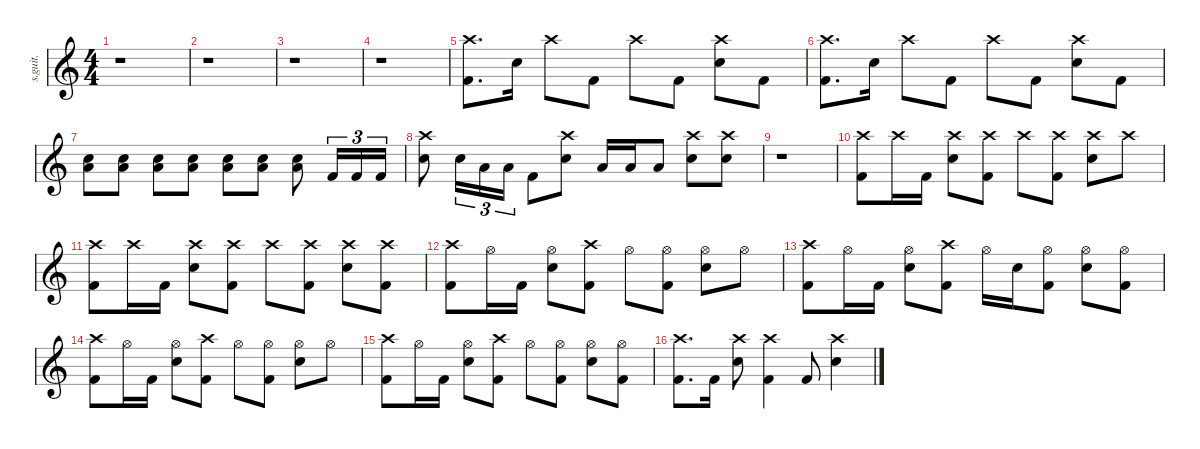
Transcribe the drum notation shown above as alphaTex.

\defaultSystemsLayout 4
\hideDynamics
\bracketExtendMode nobrackets
\track ("" "s.guit.") {instrument percussion}
\staff {score}
\articulation defaults
\ts (4 4)
\tempo (95 hide)
\clef g2
\ks c
r.1{dy f} |
r.1 |
r.1 |
r.1 |
("Crash high (hit)" "Kick (hit) 2").8{d} "Snare (hit) 2".16 "Crash high (hit)".8 "Kick (hit) 2".8 "Crash high (hit)".8 "Kick (hit) 2".8 ("Crash high (hit)" "Snare (hit) 2").8 "Kick (hit) 2".8 |
("Crash high (hit)" "Kick (hit) 2").8{d} "Snare (hit) 2".16 "Crash high (hit)".8 "Kick (hit) 2".8 "Crash high (hit)".8 "Kick (hit) 2".8 ("Crash high (hit)" "Snare (hit) 2").8 "Kick (hit) 2".8 |
("Snare (hit) 2" "Low Floor Tom (hit)").8 ("Snare (hit) 2" "Low Floor Tom (hit)").8 ("Snare (hit) 2" "Low Floor Tom (hit)").8 ("Snare (hit) 2" "Low Floor Tom (hit)").8 ("Snare (hit) 2" "Low Floor Tom (hit)").8 ("Snare (hit) 2" "Low Floor Tom (hit)").8 ("Snare (hit) 2" "Low Floor Tom (hit)").8 "Kick (hit) 2".16{tu (3 2)} "Kick (hit) 2".16{tu (3 2)} "Kick (hit) 2".16{tu (3 2)} |
("Crash high (hit)" "Snare (hit) 2").8 "Snare (hit) 2".16{tu (3 2)} "Low Tom (hit)".16{tu (3 2)} "Low Floor Tom (hit)".16{tu (3 2)} "Kick (hit) 2".8 ("Crash high (hit)" "Snare (hit) 2").8 "Low Tom (hit)".16 "Low Tom (hit)".16 "Low Floor Tom (hit)".8 ("Crash high (hit)" "Snare (hit) 2").8 ("Crash high (hit)" "Snare (hit) 2").8 |
r.1 |
("Crash high (hit)" "Kick (hit) 2").8 "Crash high (hit)".16 "Kick (hit) 2".16 ("Crash high (hit)" "Snare (hit) 2").8 ("Crash high (hit)" "Kick (hit) 2").8 "Crash high (hit)".8 ("Crash high (hit)" "Kick (hit) 2").8 ("Crash high (hit)" "Snare (hit) 2").8 "Crash high (hit)".8 |
("Crash high (hit)" "Kick (hit) 2").8 "Crash high (hit)".16 "Kick (hit) 2".16 ("Crash high (hit)" "Snare (hit) 2").8 ("Crash high (hit)" "Kick (hit) 2").8 "Crash high (hit)".8 ("Crash high (hit)" "Kick (hit) 2").8 ("Crash high (hit)" "Snare (hit) 2").8 ("Crash high (hit)" "Kick (hit) 2").8 |
("Crash high (hit)" "Kick (hit) 2").8 "Hi-Hat (open)".16 "Kick (hit) 2".16 ("Hi-Hat (open)" "Snare (hit) 2").8 ("Crash high (hit)" "Kick (hit) 2").8 "Hi-Hat (open)".8 ("Hi-Hat (open)" "Kick (hit) 2").8 ("Hi-Hat (open)" "Snare (hit) 2").8 "Hi-Hat (open)".8 |
("Crash high (hit)" "Kick (hit) 2").8 "Hi-Hat (open)".16 "Kick (hit) 2".16 ("Hi-Hat (open)" "Snare (hit) 2").8 ("Crash high (hit)" "Kick (hit) 2").8 "Hi-Hat (open)".16 "Snare (hit) 2".16 ("Hi-Hat (open)" "Kick (hit) 2").8 ("Hi-Hat (open)" "Snare (hit) 2").8 ("Hi-Hat (open)" "Kick (hit) 2").8 |
("Crash high (hit)" "Kick (hit) 2").8 "Hi-Hat (open)".16 "Kick (hit) 2".16 ("Hi-Hat (open)" "Snare (hit) 2").8 ("Crash high (hit)" "Kick (hit) 2").8 "Hi-Hat (open)".8 ("Hi-Hat (open)" "Kick (hit) 2").8 ("Hi-Hat (open)" "Snare (hit) 2").8 "Hi-Hat (open)".8 |
("Crash high (hit)" "Kick (hit) 2").8 "Hi-Hat (open)".16 "Kick (hit) 2".16 ("Hi-Hat (open)" "Snare (hit) 2").8 ("Crash high (hit)" "Kick (hit) 2").8 "Hi-Hat (open)".8 ("Hi-Hat (open)" "Kick (hit) 2").8 ("Hi-Hat (open)" "Snare (hit) 2").8 ("Hi-Hat (open)" "Kick (hit) 2").8 |
("Crash high (hit)" "Kick (hit) 2").8{d} "Kick (hit) 2".16 ("Crash high (hit)" "Snare (hit) 2").8 ("Crash high (hit)" "Kick (hit) 2").4 "Kick (hit) 2".8 ("Crash high (hit)" "Snare (hit) 2").4
